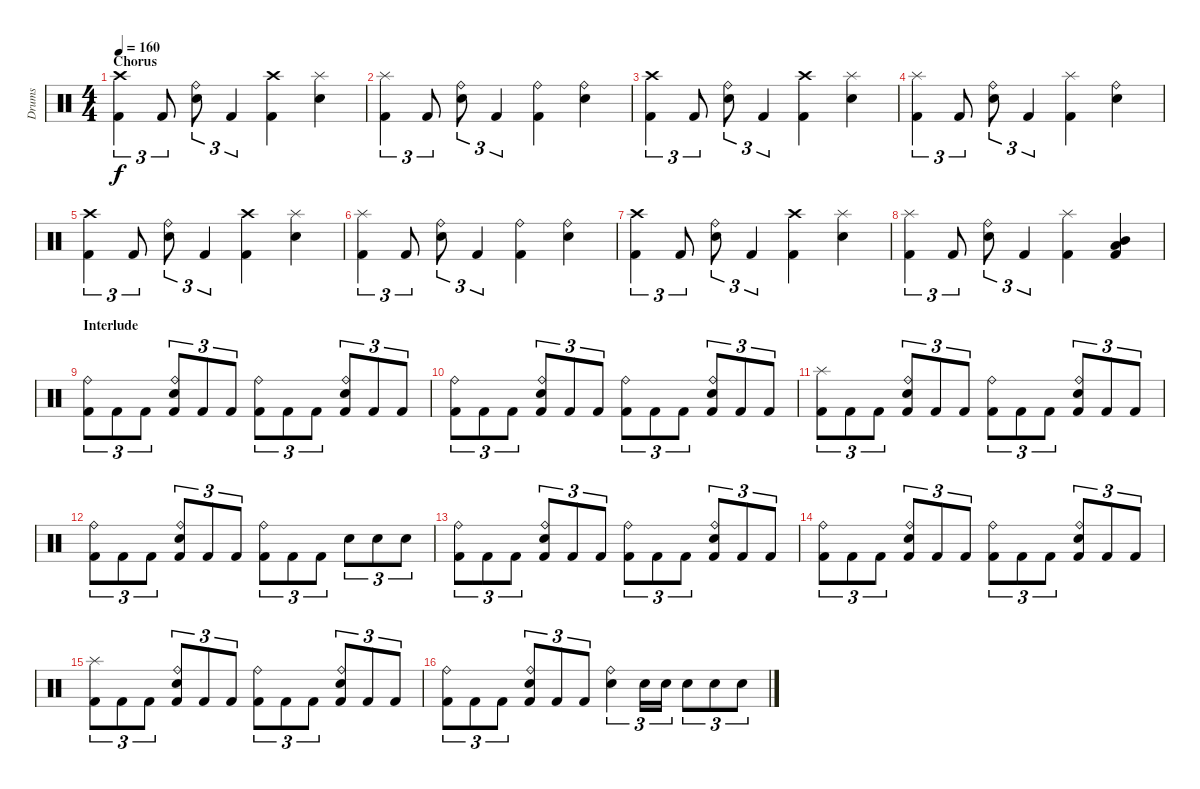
\track ("Drums" "Drums") {instrument percussion}
\staff {score}
\articulation defaults
\ts (4 4)
\section ("" "Chorus")
\tempo 160
\clef neutral
\ks c
("Crash high (hit)" "Kick (hit) 2").4{tu (3 2) dy f} "Kick (hit) 2".8{tu (3 2)} ("Ride (bell)" "Snare (hit) 2").8{tu (3 2)} "Kick (hit) 2".4{tu (3 2)} ("Crash high (hit)" "Kick (hit) 2").4 ("Splash (hit)" "Snare (hit) 2").4 |
("Splash (hit)" "Kick (hit) 2").4{tu (3 2)} "Kick (hit) 2".8{tu (3 2)} ("Ride (bell)" "Snare (hit) 2").8{tu (3 2)} "Kick (hit) 2".4{tu (3 2)} ("Ride (bell)" "Kick (hit) 2").4 ("Ride (bell)" "Snare (hit) 2").4 |
("Crash high (hit)" "Kick (hit) 2").4{tu (3 2)} "Kick (hit) 2".8{tu (3 2)} ("Ride (bell)" "Snare (hit) 2").8{tu (3 2)} "Kick (hit) 2".4{tu (3 2)} ("Crash high (hit)" "Kick (hit) 2").4 ("Splash (hit)" "Snare (hit) 2").4 |
("Splash (hit)" "Kick (hit) 2").4{tu (3 2)} "Kick (hit) 2".8{tu (3 2)} ("Ride (bell)" "Snare (hit) 2").8{tu (3 2)} "Kick (hit) 2".4{tu (3 2)} ("Splash (hit)" "Kick (hit) 2").4 ("Ride (bell)" "Snare (hit) 2").4 |
("Crash high (hit)" "Kick (hit) 2").4{tu (3 2)} "Kick (hit) 2".8{tu (3 2)} ("Ride (bell)" "Snare (hit) 2").8{tu (3 2)} "Kick (hit) 2".4{tu (3 2)} ("Crash high (hit)" "Kick (hit) 2").4 ("Splash (hit)" "Snare (hit) 2").4 |
("Splash (hit)" "Kick (hit) 2").4{tu (3 2)} "Kick (hit) 2".8{tu (3 2)} ("Ride (bell)" "Snare (hit) 2").8{tu (3 2)} "Kick (hit) 2".4{tu (3 2)} ("Ride (bell)" "Kick (hit) 2").4 ("Ride (bell)" "Snare (hit) 2").4 |
("Crash high (hit)" "Kick (hit) 2").4{tu (3 2)} "Kick (hit) 2".8{tu (3 2)} ("Ride (bell)" "Snare (hit) 2").8{tu (3 2)} "Kick (hit) 2".4{tu (3 2)} ("Crash high (hit)" "Kick (hit) 2").4 ("Splash (hit)" "Snare (hit) 2").4 |
("Splash (hit)" "Kick (hit) 2").4{tu (3 2)} "Kick (hit) 2".8{tu (3 2)} ("Ride (bell)" "Snare (hit) 2").8{tu (3 2)} "Kick (hit) 2".4{tu (3 2)} ("Splash (hit)" "Kick (hit) 2").4 ("Mid Tom (hit)" "Low Tom (hit)" "Kick (hit) 2").4 |
\section ("" "Interlude")
("Ride (bell)" "Kick (hit) 2").8{tu (3 2)} "Kick (hit) 2".8{tu (3 2)} "Kick (hit) 2".8{tu (3 2)} ("Ride (bell)" "Snare (hit) 2" "Kick (hit) 2").8{tu (3 2)} "Kick (hit) 2".8{tu (3 2)} "Kick (hit) 2".8{tu (3 2)} ("Ride (bell)" "Kick (hit) 2").8{tu (3 2)} "Kick (hit) 2".8{tu (3 2)} "Kick (hit) 2".8{tu (3 2)} ("Ride (bell)" "Snare (hit) 2" "Kick (hit) 2").8{tu (3 2)} "Kick (hit) 2".8{tu (3 2)} "Kick (hit) 2".8{tu (3 2)} |
("Ride (bell)" "Kick (hit) 2").8{tu (3 2)} "Kick (hit) 2".8{tu (3 2)} "Kick (hit) 2".8{tu (3 2)} ("Ride (bell)" "Snare (hit) 2" "Kick (hit) 2").8{tu (3 2)} "Kick (hit) 2".8{tu (3 2)} "Kick (hit) 2".8{tu (3 2)} ("Ride (bell)" "Kick (hit) 2").8{tu (3 2)} "Kick (hit) 2".8{tu (3 2)} "Kick (hit) 2".8{tu (3 2)} ("Ride (bell)" "Snare (hit) 2" "Kick (hit) 2").8{tu (3 2)} "Kick (hit) 2".8{tu (3 2)} "Kick (hit) 2".8{tu (3 2)} |
("Splash (hit)" "Kick (hit) 2").8{tu (3 2)} "Kick (hit) 2".8{tu (3 2)} "Kick (hit) 2".8{tu (3 2)} ("Ride (bell)" "Snare (hit) 2" "Kick (hit) 2").8{tu (3 2)} "Kick (hit) 2".8{tu (3 2)} "Kick (hit) 2".8{tu (3 2)} ("Ride (bell)" "Kick (hit) 2").8{tu (3 2)} "Kick (hit) 2".8{tu (3 2)} "Kick (hit) 2".8{tu (3 2)} ("Ride (bell)" "Snare (hit) 2" "Kick (hit) 2").8{tu (3 2)} "Kick (hit) 2".8{tu (3 2)} "Kick (hit) 2".8{tu (3 2)} |
("Ride (bell)" "Kick (hit) 2").8{tu (3 2)} "Kick (hit) 2".8{tu (3 2)} "Kick (hit) 2".8{tu (3 2)} ("Ride (bell)" "Snare (hit) 2" "Kick (hit) 2").8{tu (3 2)} "Kick (hit) 2".8{tu (3 2)} "Kick (hit) 2".8{tu (3 2)} ("Ride (bell)" "Kick (hit) 2").8{tu (3 2)} "Kick (hit) 2".8{tu (3 2)} "Kick (hit) 2".8{tu (3 2)} "Snare (hit) 2".8{tu (3 2)} "Snare (hit) 2".8{tu (3 2)} "Snare (hit) 2".8{tu (3 2)} |
("Ride (bell)" "Kick (hit) 2").8{tu (3 2)} "Kick (hit) 2".8{tu (3 2)} "Kick (hit) 2".8{tu (3 2)} ("Ride (bell)" "Snare (hit) 2" "Kick (hit) 2").8{tu (3 2)} "Kick (hit) 2".8{tu (3 2)} "Kick (hit) 2".8{tu (3 2)} ("Ride (bell)" "Kick (hit) 2").8{tu (3 2)} "Kick (hit) 2".8{tu (3 2)} "Kick (hit) 2".8{tu (3 2)} ("Ride (bell)" "Snare (hit) 2" "Kick (hit) 2").8{tu (3 2)} "Kick (hit) 2".8{tu (3 2)} "Kick (hit) 2".8{tu (3 2)} |
("Ride (bell)" "Kick (hit) 2").8{tu (3 2)} "Kick (hit) 2".8{tu (3 2)} "Kick (hit) 2".8{tu (3 2)} ("Ride (bell)" "Snare (hit) 2" "Kick (hit) 2").8{tu (3 2)} "Kick (hit) 2".8{tu (3 2)} "Kick (hit) 2".8{tu (3 2)} ("Ride (bell)" "Kick (hit) 2").8{tu (3 2)} "Kick (hit) 2".8{tu (3 2)} "Kick (hit) 2".8{tu (3 2)} ("Ride (bell)" "Snare (hit) 2" "Kick (hit) 2").8{tu (3 2)} "Kick (hit) 2".8{tu (3 2)} "Kick (hit) 2".8{tu (3 2)} |
("Splash (hit)" "Kick (hit) 2").8{tu (3 2)} "Kick (hit) 2".8{tu (3 2)} "Kick (hit) 2".8{tu (3 2)} ("Ride (bell)" "Snare (hit) 2" "Kick (hit) 2").8{tu (3 2)} "Kick (hit) 2".8{tu (3 2)} "Kick (hit) 2".8{tu (3 2)} ("Ride (bell)" "Kick (hit) 2").8{tu (3 2)} "Kick (hit) 2".8{tu (3 2)} "Kick (hit) 2".8{tu (3 2)} ("Ride (bell)" "Snare (hit) 2" "Kick (hit) 2").8{tu (3 2)} "Kick (hit) 2".8{tu (3 2)} "Kick (hit) 2".8{tu (3 2)} |
("Ride (bell)" "Kick (hit) 2").8{tu (3 2)} "Kick (hit) 2".8{tu (3 2)} "Kick (hit) 2".8{tu (3 2)} ("Ride (bell)" "Snare (hit) 2" "Kick (hit) 2").8{tu (3 2)} "Kick (hit) 2".8{tu (3 2)} "Kick (hit) 2".8{tu (3 2)} ("Ride (bell)" "Snare (hit) 2").4{tu (3 2)} "Snare (hit) 2".16{tu (3 2)} "Snare (hit) 2".16{tu (3 2)} "Snare (hit) 2".8{tu (3 2)} "Snare (hit) 2".8{tu (3 2)} "Snare (hit) 2".8{tu (3 2)}
